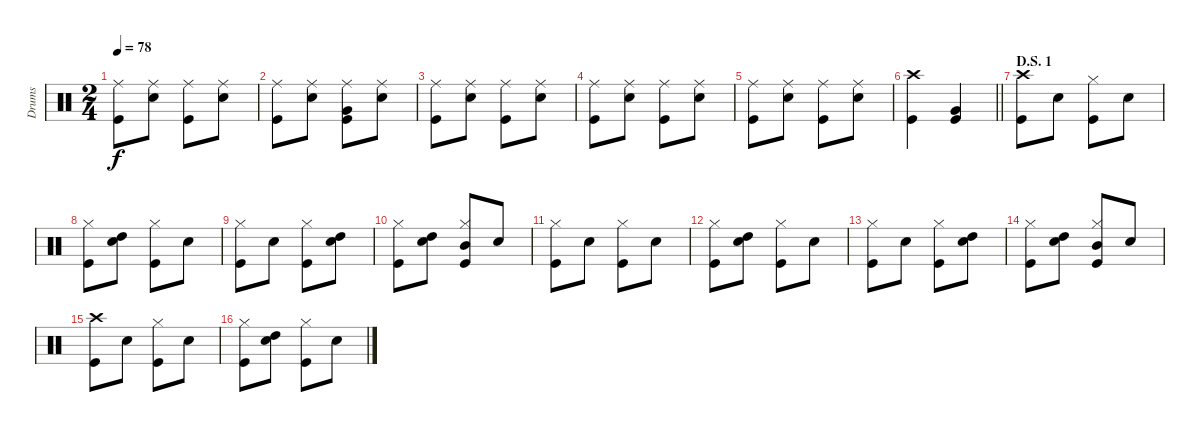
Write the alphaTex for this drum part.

\track ("Drums" "Drums") {instrument percussion}
\staff {score}
\articulation defaults
\ts (2 4)
\tempo 78
\clef neutral
\ks c
("Ride (middle)" "Kick (hit)").8{dy f} ("Ride (middle)" "Electric Snare (hit)").8 ("Ride (middle)" "Kick (hit)").8 ("Ride (middle)" "Electric Snare (hit)").8 |
("Ride (middle)" "Kick (hit)").8 ("Ride (middle)" "Electric Snare (hit)").8 ("Ride (middle)" "Very Low Tom (hit)" "Kick (hit)").8 ("Ride (middle)" "Electric Snare (hit)").8 |
("Ride (middle)" "Kick (hit)").8 ("Ride (middle)" "Electric Snare (hit)").8 ("Ride (middle)" "Kick (hit)").8 ("Ride (middle)" "Electric Snare (hit)").8 |
("Ride (middle)" "Kick (hit)").8 ("Ride (middle)" "Electric Snare (hit)").8 ("Ride (middle)" "Kick (hit)").8 ("Ride (middle)" "Electric Snare (hit)").8 |
("Ride (middle)" "Kick (hit)").8 ("Ride (middle)" "Electric Snare (hit)").8 ("Ride (middle)" "Kick (hit)").8 ("Ride (middle)" "Electric Snare (hit)").8 |
\barLineRight lightlight
("Crash high (hit)" "Kick (hit)").4 ("Very Low Tom (hit)" "Kick (hit)").4 |
\section ("" "D.S. 1")
("Crash high (hit)" "Kick (hit)").8 "Electric Snare (hit)".8 ("Hi-Hat (closed)" "Kick (hit)").8 "Electric Snare (hit)".8 |
("Hi-Hat (closed)" "Kick (hit)").8 ("High Tom (hit)" "Electric Snare (hit)").8 ("Hi-Hat (closed)" "Kick (hit)").8 "Electric Snare (hit)".8 |
("Hi-Hat (closed)" "Kick (hit)").8 "Electric Snare (hit)".8 ("Hi-Hat (closed)" "Kick (hit)").8 ("High Tom (hit)" "Electric Snare (hit)").8 |
("Hi-Hat (closed)" "Kick (hit)").8 ("High Tom (hit)" "Electric Snare (hit)").8 ("Hi-Hat (closed)" "Mid Tom (hit)" "Kick (hit)").8 "Electric Snare (hit)".8 |
("Hi-Hat (closed)" "Kick (hit)").8 "Electric Snare (hit)".8 ("Hi-Hat (closed)" "Kick (hit)").8 "Electric Snare (hit)".8 |
("Hi-Hat (closed)" "Kick (hit)").8 ("High Tom (hit)" "Electric Snare (hit)").8 ("Hi-Hat (closed)" "Kick (hit)").8 "Electric Snare (hit)".8 |
("Hi-Hat (closed)" "Kick (hit)").8 "Electric Snare (hit)".8 ("Hi-Hat (closed)" "Kick (hit)").8 ("High Tom (hit)" "Electric Snare (hit)").8 |
("Hi-Hat (closed)" "Kick (hit)").8 ("High Tom (hit)" "Electric Snare (hit)").8 ("Hi-Hat (closed)" "Mid Tom (hit)" "Kick (hit)").8 "Electric Snare (hit)".8 |
("Crash high (hit)" "Kick (hit)").8 "Electric Snare (hit)".8 ("Hi-Hat (closed)" "Kick (hit)").8 "Electric Snare (hit)".8 |
("Hi-Hat (closed)" "Kick (hit)").8 ("High Tom (hit)" "Electric Snare (hit)").8 ("Hi-Hat (closed)" "Kick (hit)").8 "Electric Snare (hit)".8
